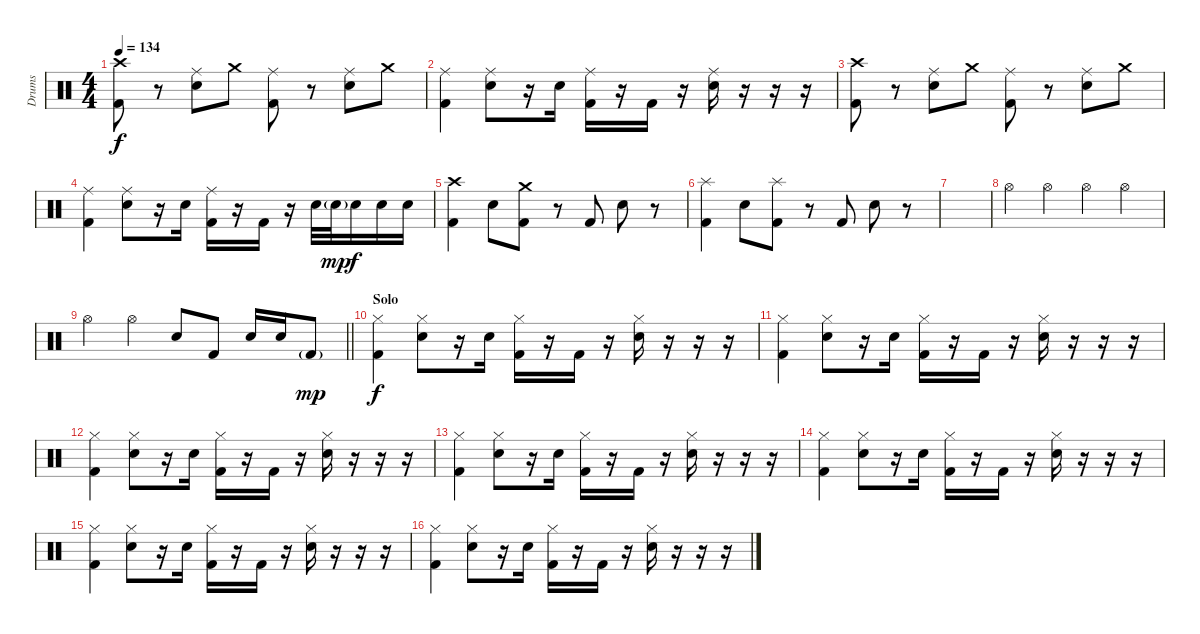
\track ("Drums" "Drums") {instrument percussion}
\staff {score}
\articulation defaults
\ts (4 4)
\tempo 134
\clef neutral
\ks c
("Crash high (hit)" "Kick (hit) 2").8{dy f} r.8 ("Ride (middle)" "Electric Snare (hit)").8 "Crash medium (hit)".8 ("Ride (middle)" "Kick (hit) 2").8 r.8 ("Ride (middle)" "Electric Snare (hit)").8 "Crash medium (hit)".8 |
("Ride (middle)" "Kick (hit) 2").4 ("Ride (middle)" "Electric Snare (hit)").8 r.16 "Electric Snare (hit)".16 ("Ride (middle)" "Kick (hit) 2").16 r.16 "Kick (hit) 2".16 r.16 ("Ride (middle)" "Electric Snare (hit)").16 r.16 r.16 r.16 |
("Crash high (hit)" "Kick (hit) 2").8 r.8 ("Ride (middle)" "Electric Snare (hit)").8 "Crash medium (hit)".8 ("Ride (middle)" "Kick (hit) 2").8 r.8 ("Ride (middle)" "Electric Snare (hit)").8 "Crash medium (hit)".8 |
("Ride (middle)" "Kick (hit) 2").4 ("Ride (middle)" "Electric Snare (hit)").8 r.16 "Electric Snare (hit)".16 ("Ride (middle)" "Kick (hit) 2").16 r.16 "Kick (hit) 2".16 r.16 "Electric Snare (hit)".32 "Electric Snare (hit)"{g}.32{dy mp} "Electric Snare (hit)".16{dy f} "Electric Snare (hit)".16 "Electric Snare (hit)".16 |
("Crash high (hit)" "Kick (hit) 2").4 "Electric Snare (hit)".8 ("Crash medium (hit)" "Kick (hit) 2").8 r.8 "Kick (hit) 2".8 "Electric Snare (hit)".8 r.8 |
("Splash (hit)" "Kick (hit) 2").4 "Electric Snare (hit)".8 ("Splash (hit)" "Kick (hit) 2").8 r.8 "Kick (hit) 2".8 "Electric Snare (hit)".8 r.8 |
|
"Hi-Hat (open)".4 "Hi-Hat (open)".4 "Hi-Hat (open)".4 "Hi-Hat (open)".4 |
\barLineRight lightlight "Hi-Hat (open)".4 "Hi-Hat (open)".4 "Electric Snare (hit)".8 "Kick (hit) 2".8 "Electric Snare (hit)".16 "Electric Snare (hit)".16 "Kick (hit) 2"{g}.8{dy mp}
|
\section ("" "Solo")
("Hi-Hat (closed)" "Kick (hit) 2").4{dy f} ("Hi-Hat (closed)" "Electric Snare (hit)").8 r.16 "Electric Snare (hit)".16 ("Hi-Hat (closed)" "Kick (hit) 2").16 r.16 "Kick (hit) 2".16 r.16 ("Hi-Hat (closed)" "Electric Snare (hit)").16 r.16 r.16 r.16 |
("Hi-Hat (closed)" "Kick (hit) 2").4 ("Hi-Hat (closed)" "Electric Snare (hit)").8 r.16 "Electric Snare (hit)".16 ("Hi-Hat (closed)" "Kick (hit) 2").16 r.16 "Kick (hit) 2".16 r.16 ("Hi-Hat (closed)" "Electric Snare (hit)").16 r.16 r.16 r.16 |
("Hi-Hat (closed)" "Kick (hit) 2").4 ("Hi-Hat (closed)" "Electric Snare (hit)").8 r.16 "Electric Snare (hit)".16 ("Hi-Hat (closed)" "Kick (hit) 2").16 r.16 "Kick (hit) 2".16 r.16 ("Hi-Hat (closed)" "Electric Snare (hit)").16 r.16 r.16 r.16 |
("Hi-Hat (closed)" "Kick (hit) 2").4 ("Hi-Hat (closed)" "Electric Snare (hit)").8 r.16 "Electric Snare (hit)".16 ("Hi-Hat (closed)" "Kick (hit) 2").16 r.16 "Kick (hit) 2".16 r.16 ("Hi-Hat (closed)" "Electric Snare (hit)").16 r.16 r.16 r.16 |
("Hi-Hat (closed)" "Kick (hit) 2").4 ("Hi-Hat (closed)" "Electric Snare (hit)").8 r.16 "Electric Snare (hit)".16 ("Hi-Hat (closed)" "Kick (hit) 2").16 r.16 "Kick (hit) 2".16 r.16 ("Hi-Hat (closed)" "Electric Snare (hit)").16 r.16 r.16 r.16 |
("Hi-Hat (closed)" "Kick (hit) 2").4 ("Hi-Hat (closed)" "Electric Snare (hit)").8 r.16 "Electric Snare (hit)".16 ("Hi-Hat (closed)" "Kick (hit) 2").16 r.16 "Kick (hit) 2".16 r.16 ("Hi-Hat (closed)" "Electric Snare (hit)").16 r.16 r.16 r.16 |
("Hi-Hat (closed)" "Kick (hit) 2").4 ("Hi-Hat (closed)" "Electric Snare (hit)").8 r.16 "Electric Snare (hit)".16 ("Hi-Hat (closed)" "Kick (hit) 2").16 r.16 "Kick (hit) 2".16 r.16 ("Hi-Hat (closed)" "Electric Snare (hit)").16 r.16 r.16 r.16
